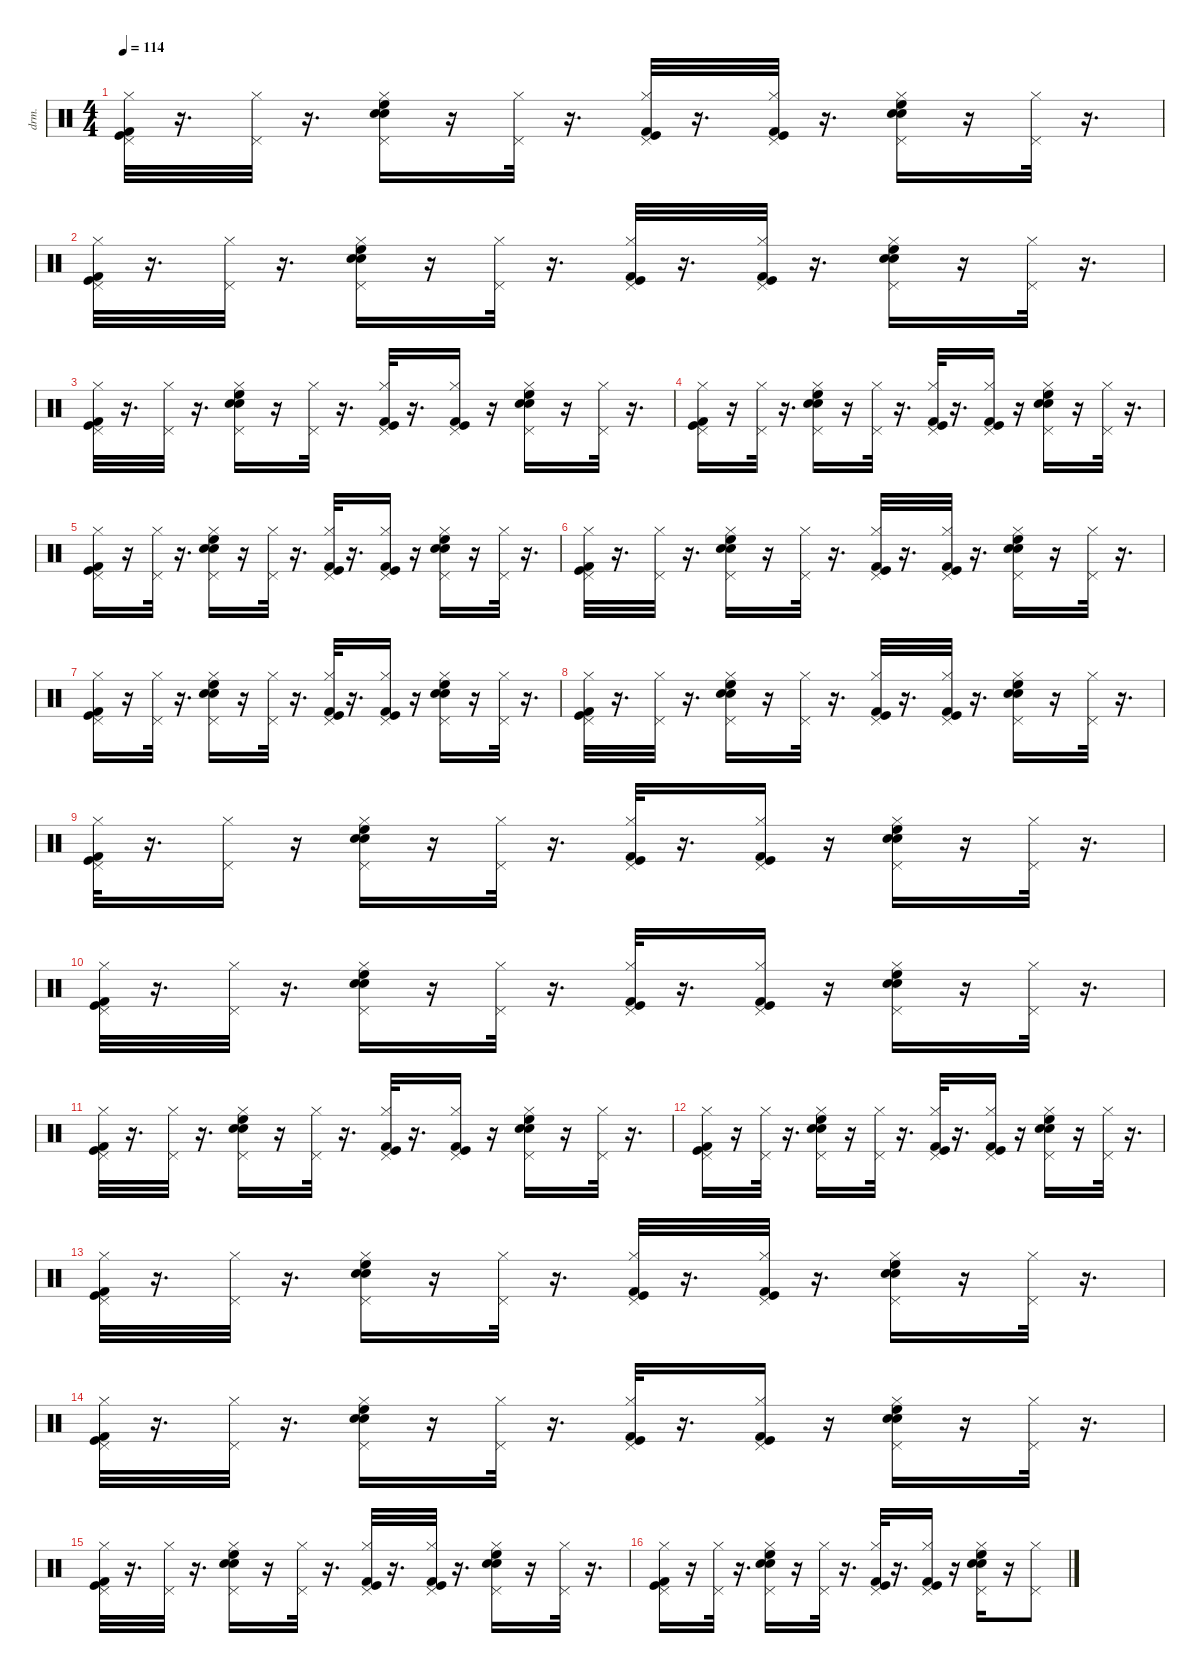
\defaultSystemsLayout 4
\hideDynamics
\bracketExtendMode nobrackets
\otherSystemsTrackNameOrientation horizontal
\track ("Drums" "drm.") {instrument percussion}
\staff {score}
\articulation defaults
\ts (4 4)
\tempo 114
\clef neutral
\ks c
("Kick (hit)" "Pedal Hi-Hat (hit)" "Hi-Hat (closed)" "Kick (hit) 2").32{dy fff} r.16{d} ("Pedal Hi-Hat (hit)" "Hi-Hat (closed)").32{dy f} r.16{d} ("High Floor Tom (hit)" "Snare (hit) 2" "Pedal Hi-Hat (hit)" "Hi-Hat (closed)" "Snare (hit) 2").16{dy fff} r.16 ("Pedal Hi-Hat (hit)" "Hi-Hat (closed)").32{dy ff} r.16{d} ("Pedal Hi-Hat (hit)" "Hi-Hat (closed)" "Kick (hit) 2" "Kick (hit)").32{dy f} r.16{d} ("Pedal Hi-Hat (hit)" "Hi-Hat (closed)" "Kick (hit)" "Kick (hit) 2").32 r.16{d} ("Pedal Hi-Hat (hit)" "Snare (hit) 2" "Hi-Hat (closed)" "High Floor Tom (hit)" "Snare (hit) 2").16{dy ff} r.16 ("Pedal Hi-Hat (hit)" "Hi-Hat (closed)").32{dy f} r.16{d} |
("Pedal Hi-Hat (hit)" "Hi-Hat (closed)" "Kick (hit)" "Kick (hit) 2").32{dy ff} r.16{d} ("Pedal Hi-Hat (hit)" "Hi-Hat (closed)").32{dy f} r.16{d} ("Snare (hit) 2" "High Floor Tom (hit)" "Pedal Hi-Hat (hit)" "Hi-Hat (closed)" "Snare (hit) 2").16{dy fff} r.16 ("Pedal Hi-Hat (hit)" "Hi-Hat (closed)").32{dy f} r.16{d} ("Kick (hit) 2" "Pedal Hi-Hat (hit)" "Hi-Hat (closed)" "Kick (hit)").32{dy fff} r.16{d} ("Pedal Hi-Hat (hit)" "Kick (hit) 2" "Hi-Hat (closed)" "Kick (hit)").32{dy ff} r.16{d} ("Snare (hit) 2" "Pedal Hi-Hat (hit)" "High Floor Tom (hit)" "Hi-Hat (closed)" "Snare (hit) 2").16{dy fff} r.16 ("Pedal Hi-Hat (hit)" "Hi-Hat (closed)").32{dy ff} r.16{d} |
("Pedal Hi-Hat (hit)" "Hi-Hat (closed)" "Kick (hit) 2" "Kick (hit)").32 r.16{d} ("Pedal Hi-Hat (hit)" "Hi-Hat (closed)").32{dy f} r.16{d} ("Snare (hit) 2" "Pedal Hi-Hat (hit)" "Hi-Hat (closed)" "High Floor Tom (hit)" "Snare (hit) 2").16{dy fff} r.16 ("Pedal Hi-Hat (hit)" "Hi-Hat (closed)").32{dy ff} r.16{d} ("Kick (hit) 2" "Pedal Hi-Hat (hit)" "Hi-Hat (closed)" "Kick (hit)").32{dy fff} r.16{d} ("Pedal Hi-Hat (hit)" "Kick (hit) 2" "Hi-Hat (closed)" "Kick (hit)").16{dy ff} r.16 ("High Floor Tom (hit)" "Snare (hit) 2" "Pedal Hi-Hat (hit)" "Hi-Hat (closed)" "Snare (hit) 2").16{dy fff} r.16 ("Pedal Hi-Hat (hit)" "Hi-Hat (closed)").32{dy ff} r.16{d} |
("Kick (hit) 2" "Pedal Hi-Hat (hit)" "Hi-Hat (closed)" "Kick (hit)").16{dy fff} r.16 ("Pedal Hi-Hat (hit)" "Hi-Hat (closed)").32{dy f} r.16{d} ("Snare (hit) 2" "Pedal Hi-Hat (hit)" "Hi-Hat (closed)" "High Floor Tom (hit)" "Snare (hit) 2").16{dy fff} r.16 ("Pedal Hi-Hat (hit)" "Hi-Hat (closed)").32{dy f} r.16{d} ("Kick (hit) 2" "Pedal Hi-Hat (hit)" "Kick (hit)" "Hi-Hat (closed)").32{dy fff} r.16{d} ("Pedal Hi-Hat (hit)" "Hi-Hat (closed)" "Kick (hit)" "Kick (hit) 2").16{dy f} r.16 ("Pedal Hi-Hat (hit)" "Snare (hit) 2" "High Floor Tom (hit)" "Hi-Hat (closed)" "Snare (hit) 2").16{dy ff} r.16 ("Pedal Hi-Hat (hit)" "Hi-Hat (closed)").32{dy f} r.16{d} |
("Kick (hit) 2" "Pedal Hi-Hat (hit)" "Hi-Hat (closed)" "Kick (hit)").16{dy fff} r.16 ("Pedal Hi-Hat (hit)" "Hi-Hat (closed)").32{dy ff} r.16{d} ("Snare (hit) 2" "Snare (hit) 2" "Pedal Hi-Hat (hit)" "Hi-Hat (closed)" "High Floor Tom (hit)").16{dy fff} r.16 ("Pedal Hi-Hat (hit)" "Hi-Hat (closed)").32{dy f} r.16{d} ("Kick (hit) 2" "Pedal Hi-Hat (hit)" "Hi-Hat (closed)" "Kick (hit)").32{dy fff} r.16{d} ("Pedal Hi-Hat (hit)" "Kick (hit) 2" "Hi-Hat (closed)" "Kick (hit)").16{dy f} r.16 ("Snare (hit) 2" "High Floor Tom (hit)" "Pedal Hi-Hat (hit)" "Hi-Hat (closed)" "Snare (hit) 2").16{dy fff} r.16 ("Hi-Hat (closed)" "Pedal Hi-Hat (hit)").32{dy f} r.16{d} |
("Kick (hit)" "Pedal Hi-Hat (hit)" "Hi-Hat (closed)" "Kick (hit) 2").32{dy fff} r.16{d} ("Pedal Hi-Hat (hit)" "Hi-Hat (closed)").32{dy ff} r.16{d} ("Pedal Hi-Hat (hit)" "Snare (hit) 2" "Hi-Hat (closed)" "High Floor Tom (hit)" "Snare (hit) 2").16 r.16 ("Pedal Hi-Hat (hit)" "Hi-Hat (closed)").32 r.16{d} ("Hi-Hat (closed)" "Pedal Hi-Hat (hit)" "Kick (hit)" "Kick (hit) 2").32{dy f} r.16{d} ("Pedal Hi-Hat (hit)" "Kick (hit)" "Hi-Hat (closed)" "Kick (hit) 2").32{dy ff} r.16{d} ("Snare (hit) 2" "High Floor Tom (hit)" "Pedal Hi-Hat (hit)" "Hi-Hat (closed)" "Snare (hit) 2").16{dy fff} r.16 ("Pedal Hi-Hat (hit)" "Hi-Hat (closed)").32{dy f} r.16{d} |
("Kick (hit)" "Pedal Hi-Hat (hit)" "Hi-Hat (closed)" "Kick (hit) 2").16{dy fff} r.16 ("Pedal Hi-Hat (hit)" "Hi-Hat (closed)").32{dy ff} r.16{d} ("Pedal Hi-Hat (hit)" "Hi-Hat (closed)" "Snare (hit) 2" "Snare (hit) 2" "High Floor Tom (hit)").16 r.16 ("Pedal Hi-Hat (hit)" "Hi-Hat (closed)").32 r.16{d} ("Kick (hit)" "Pedal Hi-Hat (hit)" "Hi-Hat (closed)" "Kick (hit) 2").32{dy fff} r.16{d} ("Hi-Hat (closed)" "Pedal Hi-Hat (hit)" "Kick (hit)" "Kick (hit) 2").16{dy ff} r.16 ("High Floor Tom (hit)" "Pedal Hi-Hat (hit)" "Hi-Hat (closed)" "Snare (hit) 2" "Snare (hit) 2").16{dy fff} r.16 ("Pedal Hi-Hat (hit)" "Hi-Hat (closed)").32{dy ff} r.16{d} |
("Kick (hit)" "Pedal Hi-Hat (hit)" "Hi-Hat (closed)" "Kick (hit) 2").32{dy fff} r.16{d} ("Pedal Hi-Hat (hit)" "Hi-Hat (closed)").32{dy ff} r.16{d} ("Snare (hit) 2" "Pedal Hi-Hat (hit)" "Hi-Hat (closed)" "Snare (hit) 2" "High Floor Tom (hit)").16{dy fff} r.16 ("Pedal Hi-Hat (hit)" "Hi-Hat (closed)").32{dy f} r.16{d} ("Pedal Hi-Hat (hit)" "Hi-Hat (closed)" "Kick (hit)" "Kick (hit) 2").32{dy ff} r.16{d} ("Hi-Hat (closed)" "Pedal Hi-Hat (hit)" "Kick (hit)" "Kick (hit) 2").32{dy f} r.16{d} ("Snare (hit) 2" "Pedal Hi-Hat (hit)" "Snare (hit) 2" "Hi-Hat (closed)" "High Floor Tom (hit)").16{dy fff} r.16 ("Hi-Hat (closed)" "Pedal Hi-Hat (hit)").32{dy f} r.16{d} |
("Kick (hit)" "Kick (hit) 2" "Pedal Hi-Hat (hit)" "Hi-Hat (closed)").32{dy fff} r.16{d} ("Pedal Hi-Hat (hit)" "Hi-Hat (closed)").16{dy f} r.16 ("Snare (hit) 2" "Pedal Hi-Hat (hit)" "Snare (hit) 2" "Hi-Hat (closed)" "High Floor Tom (hit)").16{dy fff} r.16 ("Pedal Hi-Hat (hit)" "Hi-Hat (closed)").32{dy f} r.16{d} ("Kick (hit)" "Hi-Hat (closed)" "Pedal Hi-Hat (hit)" "Kick (hit) 2").32{dy fff} r.16{d} ("Kick (hit) 2" "Kick (hit)" "Hi-Hat (closed)" "Pedal Hi-Hat (hit)").16 r.16 ("Snare (hit) 2" "Pedal Hi-Hat (hit)" "Hi-Hat (closed)" "High Floor Tom (hit)" "Snare (hit) 2").16 r.16 ("Pedal Hi-Hat (hit)" "Hi-Hat (closed)").32{dy f} r.16{d} |
("Kick (hit)" "Kick (hit) 2" "Pedal Hi-Hat (hit)" "Hi-Hat (closed)").32{dy fff} r.16{d} ("Pedal Hi-Hat (hit)" "Hi-Hat (closed)").32{dy ff} r.16{d} ("Snare (hit) 2" "Snare (hit) 2" "Pedal Hi-Hat (hit)" "High Floor Tom (hit)" "Hi-Hat (closed)").16{dy fff} r.16 ("Hi-Hat (closed)" "Pedal Hi-Hat (hit)").32{dy f} r.16{d} ("Pedal Hi-Hat (hit)" "Kick (hit) 2" "Hi-Hat (closed)" "Kick (hit)").32 r.16{d} ("Pedal Hi-Hat (hit)" "Kick (hit) 2" "Hi-Hat (closed)" "Kick (hit)").16 r.16 ("High Floor Tom (hit)" "Snare (hit) 2" "Hi-Hat (closed)" "Snare (hit) 2" "Pedal Hi-Hat (hit)").16{dy fff} r.16 ("Pedal Hi-Hat (hit)" "Hi-Hat (closed)").32{dy ff} r.16{d} |
("Kick (hit)" "Kick (hit) 2" "Pedal Hi-Hat (hit)" "Hi-Hat (closed)").32{dy fff} r.16{d} ("Pedal Hi-Hat (hit)" "Hi-Hat (closed)").32{dy f} r.16{d} ("Pedal Hi-Hat (hit)" "Hi-Hat (closed)" "Snare (hit) 2" "High Floor Tom (hit)" "Snare (hit) 2").16{dy ff} r.16 ("Pedal Hi-Hat (hit)" "Hi-Hat (closed)").32 r.16{d} ("Pedal Hi-Hat (hit)" "Hi-Hat (closed)" "Kick (hit)" "Kick (hit) 2").32 r.16{d} ("Pedal Hi-Hat (hit)" "Hi-Hat (closed)" "Kick (hit) 2" "Kick (hit)").16 r.16 ("Snare (hit) 2" "Pedal Hi-Hat (hit)" "Snare (hit) 2" "Hi-Hat (closed)" "High Floor Tom (hit)").16{dy fff} r.16 ("Pedal Hi-Hat (hit)" "Hi-Hat (closed)").32{dy ff} r.16{d} |
("Pedal Hi-Hat (hit)" "Hi-Hat (closed)" "Kick (hit) 2" "Kick (hit)").16 r.16 ("Pedal Hi-Hat (hit)" "Hi-Hat (closed)").32 r.16{d} ("Snare (hit) 2" "Pedal Hi-Hat (hit)" "Hi-Hat (closed)" "Snare (hit) 2" "High Floor Tom (hit)").16{dy fff} r.16 ("Pedal Hi-Hat (hit)" "Hi-Hat (closed)").32{dy f} r.16{d} ("Kick (hit) 2" "Pedal Hi-Hat (hit)" "Kick (hit)" "Hi-Hat (closed)").32{dy fff} r.16{d} ("Kick (hit)" "Kick (hit) 2" "Pedal Hi-Hat (hit)" "Hi-Hat (closed)").16 r.16 ("High Floor Tom (hit)" "Snare (hit) 2" "Snare (hit) 2" "Pedal Hi-Hat (hit)" "Hi-Hat (closed)").16 r.16 ("Pedal Hi-Hat (hit)" "Hi-Hat (closed)").32{dy ff} r.16{d} |
("Kick (hit)" "Kick (hit) 2" "Hi-Hat (closed)" "Pedal Hi-Hat (hit)").32{dy fff} r.16{d} ("Hi-Hat (closed)" "Pedal Hi-Hat (hit)").32{dy ff} r.16{d} ("Snare (hit) 2" "High Floor Tom (hit)" "Hi-Hat (closed)" "Pedal Hi-Hat (hit)" "Snare (hit) 2").16{dy fff} r.16 ("Pedal Hi-Hat (hit)" "Hi-Hat (closed)").32{dy f} r.16{d} ("Kick (hit)" "Pedal Hi-Hat (hit)" "Kick (hit) 2" "Hi-Hat (closed)").32{dy fff} r.16{d} ("Kick (hit) 2" "Hi-Hat (closed)" "Pedal Hi-Hat (hit)" "Kick (hit)").32 r.16{d} ("Snare (hit) 2" "Snare (hit) 2" "Hi-Hat (closed)" "Pedal Hi-Hat (hit)" "High Floor Tom (hit)").16 r.16 ("Hi-Hat (closed)" "Pedal Hi-Hat (hit)").32{dy f} r.16{d} |
("Hi-Hat (closed)" "Pedal Hi-Hat (hit)" "Kick (hit)" "Kick (hit) 2").32{dy ff} r.16{d} ("Hi-Hat (closed)" "Pedal Hi-Hat (hit)").32{dy f} r.16{d} ("Snare (hit) 2" "Hi-Hat (closed)" "Pedal Hi-Hat (hit)" "Snare (hit) 2" "High Floor Tom (hit)").16{dy fff} r.16 ("Pedal Hi-Hat (hit)" "Hi-Hat (closed)").32{dy f} r.16{d} ("Kick (hit) 2" "Pedal Hi-Hat (hit)" "Hi-Hat (closed)" "Kick (hit)").32{dy fff} r.16{d} ("Kick (hit) 2" "Pedal Hi-Hat (hit)" "Hi-Hat (closed)" "Kick (hit)").16 r.16 ("Snare (hit) 2" "High Floor Tom (hit)" "Pedal Hi-Hat (hit)" "Hi-Hat (closed)" "Snare (hit) 2").16 r.16 ("Pedal Hi-Hat (hit)" "Hi-Hat (closed)").32{dy ff} r.16{d} |
("Kick (hit) 2" "Pedal Hi-Hat (hit)" "Hi-Hat (closed)" "Kick (hit)").32{dy fff} r.16{d} ("Hi-Hat (closed)" "Pedal Hi-Hat (hit)").32{dy f} r.16{d} ("Snare (hit) 2" "Snare (hit) 2" "High Floor Tom (hit)" "Pedal Hi-Hat (hit)" "Hi-Hat (closed)").16{dy fff} r.16 ("Pedal Hi-Hat (hit)" "Hi-Hat (closed)").32{dy ff} r.16{d} ("Pedal Hi-Hat (hit)" "Hi-Hat (closed)" "Kick (hit) 2" "Kick (hit)").32 r.16{d} ("Kick (hit) 2" "Hi-Hat (closed)" "Pedal Hi-Hat (hit)" "Kick (hit)").32{dy fff} r.16{d} ("Snare (hit) 2" "High Floor Tom (hit)" "Hi-Hat (closed)" "Pedal Hi-Hat (hit)" "Snare (hit) 2").16 r.16 ("Pedal Hi-Hat (hit)" "Hi-Hat (closed)").32{dy ff} r.16{d} |
("Kick (hit) 2" "Kick (hit)" "Hi-Hat (closed)" "Pedal Hi-Hat (hit)").16{dy fff} r.16 ("Pedal Hi-Hat (hit)" "Hi-Hat (closed)").32{dy ff} r.16{d} ("Snare (hit) 2" "Hi-Hat (closed)" "Pedal Hi-Hat (hit)" "Snare (hit) 2" "High Floor Tom (hit)").16{dy fff} r.16 ("Pedal Hi-Hat (hit)" "Hi-Hat (closed)").32{dy ff} r.16{d} ("Pedal Hi-Hat (hit)" "Hi-Hat (closed)" "Kick (hit)" "Kick (hit) 2").32 r.16{d} ("Pedal Hi-Hat (hit)" "Kick (hit) 2" "Hi-Hat (closed)" "Kick (hit)").16 r.16 ("Snare (hit) 2" "Hi-Hat (closed)" "Snare (hit) 2" "Pedal Hi-Hat (hit)" "High Floor Tom (hit)").16{dy fff} r.16 ("Pedal Hi-Hat (hit)" "Hi-Hat (closed)").8{dy ff}
